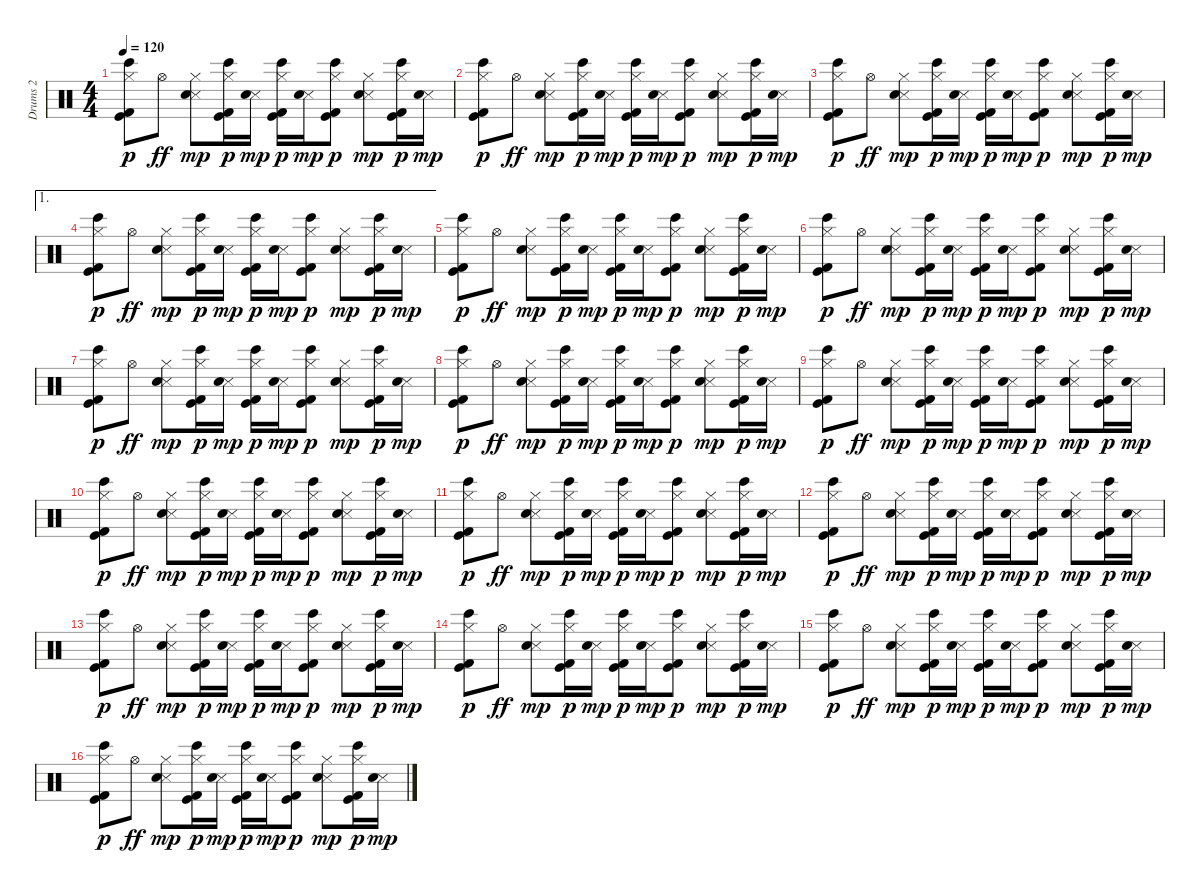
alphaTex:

\track ("Drums 2" "Drums 2") {instrument percussion}
\staff {score}
\articulation defaults
\ts (4 4)
\tempo 120
\clef neutral
\ks c
("Hi-Hat (closed)" "Bongo High (hit)" "Kick (hit) 2" "Kick (hit)").8{dy p} "Hi-Hat (open)".8{dy ff} ("Hi-Hat (closed)" "Metronome (hit)" "Electric Snare (hit)").8{dy mp} ("Hi-Hat (closed)" "Bongo High (hit)" "Kick (hit) 2" "Kick (hit)").16{dy p} ("Metronome (hit)" "Electric Snare (hit)").16{dy mp} ("Hi-Hat (closed)" "Bongo High (hit)" "Kick (hit) 2" "Kick (hit)").16{dy p} ("Metronome (hit)" "Electric Snare (hit)").16{dy mp} ("Hi-Hat (closed)" "Bongo High (hit)" "Kick (hit) 2" "Kick (hit)").8{dy p} ("Hi-Hat (closed)" "Metronome (hit)" "Electric Snare (hit)").8{dy mp} ("Hi-Hat (closed)" "Bongo High (hit)" "Kick (hit) 2" "Kick (hit)").16{dy p} ("Metronome (hit)" "Electric Snare (hit)").16{dy mp} |
("Hi-Hat (closed)" "Bongo High (hit)" "Kick (hit) 2" "Kick (hit)").8{dy p} "Hi-Hat (open)".8{dy ff} ("Hi-Hat (closed)" "Metronome (hit)" "Electric Snare (hit)").8{dy mp} ("Hi-Hat (closed)" "Bongo High (hit)" "Kick (hit) 2" "Kick (hit)").16{dy p} ("Metronome (hit)" "Electric Snare (hit)").16{dy mp} ("Hi-Hat (closed)" "Bongo High (hit)" "Kick (hit) 2" "Kick (hit)").16{dy p} ("Metronome (hit)" "Electric Snare (hit)").16{dy mp} ("Hi-Hat (closed)" "Bongo High (hit)" "Kick (hit) 2" "Kick (hit)").8{dy p} ("Hi-Hat (closed)" "Metronome (hit)" "Electric Snare (hit)").8{dy mp} ("Hi-Hat (closed)" "Bongo High (hit)" "Kick (hit) 2" "Kick (hit)").16{dy p} ("Metronome (hit)" "Electric Snare (hit)").16{dy mp} |
("Hi-Hat (closed)" "Bongo High (hit)" "Kick (hit) 2" "Kick (hit)").8{dy p} "Hi-Hat (open)".8{dy ff} ("Hi-Hat (closed)" "Metronome (hit)" "Electric Snare (hit)").8{dy mp} ("Hi-Hat (closed)" "Bongo High (hit)" "Kick (hit) 2" "Kick (hit)").16{dy p} ("Metronome (hit)" "Electric Snare (hit)").16{dy mp} ("Hi-Hat (closed)" "Bongo High (hit)" "Kick (hit) 2" "Kick (hit)").16{dy p} ("Metronome (hit)" "Electric Snare (hit)").16{dy mp} ("Hi-Hat (closed)" "Bongo High (hit)" "Kick (hit) 2" "Kick (hit)").8{dy p} ("Hi-Hat (closed)" "Metronome (hit)" "Electric Snare (hit)").8{dy mp} ("Hi-Hat (closed)" "Bongo High (hit)" "Kick (hit) 2" "Kick (hit)").16{dy p} ("Metronome (hit)" "Electric Snare (hit)").16{dy mp} |
\ae 1
("Hi-Hat (closed)" "Bongo High (hit)" "Kick (hit) 2" "Kick (hit)").8{dy p} "Hi-Hat (open)".8{dy ff} ("Hi-Hat (closed)" "Metronome (hit)" "Electric Snare (hit)").8{dy mp} ("Hi-Hat (closed)" "Bongo High (hit)" "Kick (hit) 2" "Kick (hit)").16{dy p} ("Metronome (hit)" "Electric Snare (hit)").16{dy mp} ("Hi-Hat (closed)" "Bongo High (hit)" "Kick (hit) 2" "Kick (hit)").16{dy p} ("Metronome (hit)" "Electric Snare (hit)").16{dy mp} ("Hi-Hat (closed)" "Bongo High (hit)" "Kick (hit) 2" "Kick (hit)").8{dy p} ("Hi-Hat (closed)" "Metronome (hit)" "Electric Snare (hit)").8{dy mp} ("Hi-Hat (closed)" "Bongo High (hit)" "Kick (hit) 2" "Kick (hit)").16{dy p} ("Metronome (hit)" "Electric Snare (hit)").16{dy mp} |
("Hi-Hat (closed)" "Bongo High (hit)" "Kick (hit) 2" "Kick (hit)").8{dy p} "Hi-Hat (open)".8{dy ff} ("Hi-Hat (closed)" "Metronome (hit)" "Electric Snare (hit)").8{dy mp} ("Hi-Hat (closed)" "Bongo High (hit)" "Kick (hit) 2" "Kick (hit)").16{dy p} ("Metronome (hit)" "Electric Snare (hit)").16{dy mp} ("Hi-Hat (closed)" "Bongo High (hit)" "Kick (hit) 2" "Kick (hit)").16{dy p} ("Metronome (hit)" "Electric Snare (hit)").16{dy mp} ("Hi-Hat (closed)" "Bongo High (hit)" "Kick (hit) 2" "Kick (hit)").8{dy p} ("Hi-Hat (closed)" "Metronome (hit)" "Electric Snare (hit)").8{dy mp} ("Hi-Hat (closed)" "Bongo High (hit)" "Kick (hit) 2" "Kick (hit)").16{dy p} ("Metronome (hit)" "Electric Snare (hit)").16{dy mp} |
("Hi-Hat (closed)" "Bongo High (hit)" "Kick (hit) 2" "Kick (hit)").8{dy p} "Hi-Hat (open)".8{dy ff} ("Hi-Hat (closed)" "Metronome (hit)" "Electric Snare (hit)").8{dy mp} ("Hi-Hat (closed)" "Bongo High (hit)" "Kick (hit) 2" "Kick (hit)").16{dy p} ("Metronome (hit)" "Electric Snare (hit)").16{dy mp} ("Hi-Hat (closed)" "Bongo High (hit)" "Kick (hit) 2" "Kick (hit)").16{dy p} ("Metronome (hit)" "Electric Snare (hit)").16{dy mp} ("Hi-Hat (closed)" "Bongo High (hit)" "Kick (hit) 2" "Kick (hit)").8{dy p} ("Hi-Hat (closed)" "Metronome (hit)" "Electric Snare (hit)").8{dy mp} ("Hi-Hat (closed)" "Bongo High (hit)" "Kick (hit) 2" "Kick (hit)").16{dy p} ("Metronome (hit)" "Electric Snare (hit)").16{dy mp} |
("Hi-Hat (closed)" "Bongo High (hit)" "Kick (hit) 2" "Kick (hit)").8{dy p} "Hi-Hat (open)".8{dy ff} ("Hi-Hat (closed)" "Metronome (hit)" "Electric Snare (hit)").8{dy mp} ("Hi-Hat (closed)" "Bongo High (hit)" "Kick (hit) 2" "Kick (hit)").16{dy p} ("Metronome (hit)" "Electric Snare (hit)").16{dy mp} ("Hi-Hat (closed)" "Bongo High (hit)" "Kick (hit) 2" "Kick (hit)").16{dy p} ("Metronome (hit)" "Electric Snare (hit)").16{dy mp} ("Hi-Hat (closed)" "Bongo High (hit)" "Kick (hit) 2" "Kick (hit)").8{dy p} ("Hi-Hat (closed)" "Metronome (hit)" "Electric Snare (hit)").8{dy mp} ("Hi-Hat (closed)" "Bongo High (hit)" "Kick (hit) 2" "Kick (hit)").16{dy p} ("Metronome (hit)" "Electric Snare (hit)").16{dy mp} |
("Hi-Hat (closed)" "Bongo High (hit)" "Kick (hit) 2" "Kick (hit)").8{dy p} "Hi-Hat (open)".8{dy ff} ("Hi-Hat (closed)" "Metronome (hit)" "Electric Snare (hit)").8{dy mp} ("Hi-Hat (closed)" "Bongo High (hit)" "Kick (hit) 2" "Kick (hit)").16{dy p} ("Metronome (hit)" "Electric Snare (hit)").16{dy mp} ("Hi-Hat (closed)" "Bongo High (hit)" "Kick (hit) 2" "Kick (hit)").16{dy p} ("Metronome (hit)" "Electric Snare (hit)").16{dy mp} ("Hi-Hat (closed)" "Bongo High (hit)" "Kick (hit) 2" "Kick (hit)").8{dy p} ("Hi-Hat (closed)" "Metronome (hit)" "Electric Snare (hit)").8{dy mp} ("Hi-Hat (closed)" "Bongo High (hit)" "Kick (hit) 2" "Kick (hit)").16{dy p} ("Metronome (hit)" "Electric Snare (hit)").16{dy mp} |
("Hi-Hat (closed)" "Bongo High (hit)" "Kick (hit) 2" "Kick (hit)").8{dy p} "Hi-Hat (open)".8{dy ff} ("Hi-Hat (closed)" "Metronome (hit)" "Electric Snare (hit)").8{dy mp} ("Hi-Hat (closed)" "Bongo High (hit)" "Kick (hit) 2" "Kick (hit)").16{dy p} ("Metronome (hit)" "Electric Snare (hit)").16{dy mp} ("Hi-Hat (closed)" "Bongo High (hit)" "Kick (hit) 2" "Kick (hit)").16{dy p} ("Metronome (hit)" "Electric Snare (hit)").16{dy mp} ("Hi-Hat (closed)" "Bongo High (hit)" "Kick (hit) 2" "Kick (hit)").8{dy p} ("Hi-Hat (closed)" "Metronome (hit)" "Electric Snare (hit)").8{dy mp} ("Hi-Hat (closed)" "Bongo High (hit)" "Kick (hit) 2" "Kick (hit)").16{dy p} ("Metronome (hit)" "Electric Snare (hit)").16{dy mp} |
("Hi-Hat (closed)" "Bongo High (hit)" "Kick (hit) 2" "Kick (hit)").8{dy p} "Hi-Hat (open)".8{dy ff} ("Hi-Hat (closed)" "Metronome (hit)" "Electric Snare (hit)").8{dy mp} ("Hi-Hat (closed)" "Bongo High (hit)" "Kick (hit) 2" "Kick (hit)").16{dy p} ("Metronome (hit)" "Electric Snare (hit)").16{dy mp} ("Hi-Hat (closed)" "Bongo High (hit)" "Kick (hit) 2" "Kick (hit)").16{dy p} ("Metronome (hit)" "Electric Snare (hit)").16{dy mp} ("Hi-Hat (closed)" "Bongo High (hit)" "Kick (hit) 2" "Kick (hit)").8{dy p} ("Hi-Hat (closed)" "Metronome (hit)" "Electric Snare (hit)").8{dy mp} ("Hi-Hat (closed)" "Bongo High (hit)" "Kick (hit) 2" "Kick (hit)").16{dy p} ("Metronome (hit)" "Electric Snare (hit)").16{dy mp} |
("Hi-Hat (closed)" "Bongo High (hit)" "Kick (hit) 2" "Kick (hit)").8{dy p} "Hi-Hat (open)".8{dy ff} ("Hi-Hat (closed)" "Metronome (hit)" "Electric Snare (hit)").8{dy mp} ("Hi-Hat (closed)" "Bongo High (hit)" "Kick (hit) 2" "Kick (hit)").16{dy p} ("Metronome (hit)" "Electric Snare (hit)").16{dy mp} ("Hi-Hat (closed)" "Bongo High (hit)" "Kick (hit) 2" "Kick (hit)").16{dy p} ("Metronome (hit)" "Electric Snare (hit)").16{dy mp} ("Hi-Hat (closed)" "Bongo High (hit)" "Kick (hit) 2" "Kick (hit)").8{dy p} ("Hi-Hat (closed)" "Metronome (hit)" "Electric Snare (hit)").8{dy mp} ("Hi-Hat (closed)" "Bongo High (hit)" "Kick (hit) 2" "Kick (hit)").16{dy p} ("Metronome (hit)" "Electric Snare (hit)").16{dy mp} |
("Hi-Hat (closed)" "Bongo High (hit)" "Kick (hit) 2" "Kick (hit)").8{dy p} "Hi-Hat (open)".8{dy ff} ("Hi-Hat (closed)" "Metronome (hit)" "Electric Snare (hit)").8{dy mp} ("Hi-Hat (closed)" "Bongo High (hit)" "Kick (hit) 2" "Kick (hit)").16{dy p} ("Metronome (hit)" "Electric Snare (hit)").16{dy mp} ("Hi-Hat (closed)" "Bongo High (hit)" "Kick (hit) 2" "Kick (hit)").16{dy p} ("Metronome (hit)" "Electric Snare (hit)").16{dy mp} ("Hi-Hat (closed)" "Bongo High (hit)" "Kick (hit) 2" "Kick (hit)").8{dy p} ("Hi-Hat (closed)" "Metronome (hit)" "Electric Snare (hit)").8{dy mp} ("Hi-Hat (closed)" "Bongo High (hit)" "Kick (hit) 2" "Kick (hit)").16{dy p} ("Metronome (hit)" "Electric Snare (hit)").16{dy mp} |
("Hi-Hat (closed)" "Bongo High (hit)" "Kick (hit) 2" "Kick (hit)").8{dy p} "Hi-Hat (open)".8{dy ff} ("Hi-Hat (closed)" "Metronome (hit)" "Electric Snare (hit)").8{dy mp} ("Hi-Hat (closed)" "Bongo High (hit)" "Kick (hit) 2" "Kick (hit)").16{dy p} ("Metronome (hit)" "Electric Snare (hit)").16{dy mp} ("Hi-Hat (closed)" "Bongo High (hit)" "Kick (hit) 2" "Kick (hit)").16{dy p} ("Metronome (hit)" "Electric Snare (hit)").16{dy mp} ("Hi-Hat (closed)" "Bongo High (hit)" "Kick (hit) 2" "Kick (hit)").8{dy p} ("Hi-Hat (closed)" "Metronome (hit)" "Electric Snare (hit)").8{dy mp} ("Hi-Hat (closed)" "Bongo High (hit)" "Kick (hit) 2" "Kick (hit)").16{dy p} ("Metronome (hit)" "Electric Snare (hit)").16{dy mp} |
("Hi-Hat (closed)" "Bongo High (hit)" "Kick (hit) 2" "Kick (hit)").8{dy p} "Hi-Hat (open)".8{dy ff} ("Hi-Hat (closed)" "Metronome (hit)" "Electric Snare (hit)").8{dy mp} ("Hi-Hat (closed)" "Bongo High (hit)" "Kick (hit) 2" "Kick (hit)").16{dy p} ("Metronome (hit)" "Electric Snare (hit)").16{dy mp} ("Hi-Hat (closed)" "Bongo High (hit)" "Kick (hit) 2" "Kick (hit)").16{dy p} ("Metronome (hit)" "Electric Snare (hit)").16{dy mp} ("Hi-Hat (closed)" "Bongo High (hit)" "Kick (hit) 2" "Kick (hit)").8{dy p} ("Hi-Hat (closed)" "Metronome (hit)" "Electric Snare (hit)").8{dy mp} ("Hi-Hat (closed)" "Bongo High (hit)" "Kick (hit) 2" "Kick (hit)").16{dy p} ("Metronome (hit)" "Electric Snare (hit)").16{dy mp} |
("Hi-Hat (closed)" "Bongo High (hit)" "Kick (hit) 2" "Kick (hit)").8{dy p} "Hi-Hat (open)".8{dy ff} ("Hi-Hat (closed)" "Metronome (hit)" "Electric Snare (hit)").8{dy mp} ("Hi-Hat (closed)" "Bongo High (hit)" "Kick (hit) 2" "Kick (hit)").16{dy p} ("Metronome (hit)" "Electric Snare (hit)").16{dy mp} ("Hi-Hat (closed)" "Bongo High (hit)" "Kick (hit) 2" "Kick (hit)").16{dy p} ("Metronome (hit)" "Electric Snare (hit)").16{dy mp} ("Hi-Hat (closed)" "Bongo High (hit)" "Kick (hit) 2" "Kick (hit)").8{dy p} ("Hi-Hat (closed)" "Metronome (hit)" "Electric Snare (hit)").8{dy mp} ("Hi-Hat (closed)" "Bongo High (hit)" "Kick (hit) 2" "Kick (hit)").16{dy p} ("Metronome (hit)" "Electric Snare (hit)").16{dy mp} |
("Hi-Hat (closed)" "Bongo High (hit)" "Kick (hit) 2" "Kick (hit)").8{dy p} "Hi-Hat (open)".8{dy ff} ("Hi-Hat (closed)" "Metronome (hit)" "Electric Snare (hit)").8{dy mp} ("Hi-Hat (closed)" "Bongo High (hit)" "Kick (hit) 2" "Kick (hit)").16{dy p} ("Metronome (hit)" "Electric Snare (hit)").16{dy mp} ("Hi-Hat (closed)" "Bongo High (hit)" "Kick (hit) 2" "Kick (hit)").16{dy p} ("Metronome (hit)" "Electric Snare (hit)").16{dy mp} ("Hi-Hat (closed)" "Bongo High (hit)" "Kick (hit) 2" "Kick (hit)").8{dy p} ("Hi-Hat (closed)" "Metronome (hit)" "Electric Snare (hit)").8{dy mp} ("Hi-Hat (closed)" "Bongo High (hit)" "Kick (hit) 2" "Kick (hit)").16{dy p} ("Metronome (hit)" "Electric Snare (hit)").16{dy mp}
